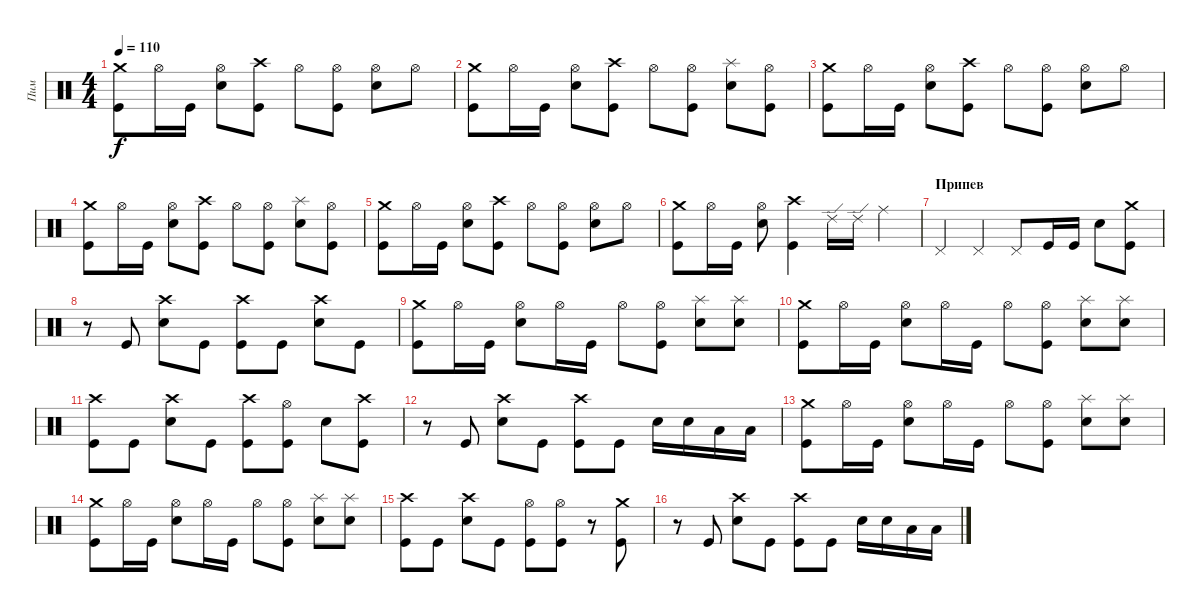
\track ("Пим" "Пим") {instrument percussion}
\staff {score}
\articulation defaults
\ts (4 4)
\tempo 110
\clef neutral
\ks c
("Crash medium (hit)" "Kick (hit)").8{dy f} "Hi-Hat (open)".16 "Kick (hit)".16 ("Hi-Hat (open)" "Snare (hit) 2").8 ("Crash high (hit)" "Kick (hit)").8 "Hi-Hat (open)".8 ("Hi-Hat (open)" "Kick (hit)").8 ("Hi-Hat (open)" "Snare (hit) 2").8 "Hi-Hat (open)".8 |
("Crash medium (hit)" "Kick (hit)").8 "Hi-Hat (open)".16 "Kick (hit)".16 ("Hi-Hat (open)" "Snare (hit) 2").8 ("Crash high (hit)" "Kick (hit)").8 "Hi-Hat (open)".8 ("Hi-Hat (open)" "Kick (hit)").8 ("Splash (hit)" "Snare (hit) 2").8 ("Hi-Hat (open)" "Kick (hit)").8 |
("Crash medium (hit)" "Kick (hit)").8 "Hi-Hat (open)".16 "Kick (hit)".16 ("Hi-Hat (open)" "Snare (hit) 2").8 ("Crash high (hit)" "Kick (hit)").8 "Hi-Hat (open)".8 ("Hi-Hat (open)" "Kick (hit)").8 ("Hi-Hat (open)" "Snare (hit) 2").8 "Hi-Hat (open)".8 |
("Crash medium (hit)" "Kick (hit)").8 "Hi-Hat (open)".16 "Kick (hit)".16 ("Hi-Hat (open)" "Snare (hit) 2").8 ("Crash high (hit)" "Kick (hit)").8 "Hi-Hat (open)".8 ("Hi-Hat (open)" "Kick (hit)").8 ("Splash (hit)" "Snare (hit) 2").8 ("Hi-Hat (open)" "Kick (hit)").8 |
("Crash medium (hit)" "Kick (hit)").8 "Hi-Hat (open)".16 "Kick (hit)".16 ("Hi-Hat (open)" "Snare (hit) 2").8 ("Crash high (hit)" "Kick (hit)").8 "Hi-Hat (open)".8 ("Hi-Hat (open)" "Kick (hit)").8 ("Hi-Hat (open)" "Snare (hit) 2").8 "Hi-Hat (open)".8 |
("Crash medium (hit)" "Kick (hit)").8 "Hi-Hat (open)".16 "Kick (hit)".16 ("Hi-Hat (open)" "Snare (hit) 2").8 ("Crash high (hit)" "Kick (hit)").4 "Ride (edge) 2".16 "Ride (edge) 2".16 "Ride (middle)".4 |
\section ("" "Припев")
"Pedal Hi-Hat (hit)".4 "Pedal Hi-Hat (hit)".4 "Pedal Hi-Hat (hit)".8 "Kick (hit)".16 "Kick (hit)".16 "Snare (hit) 2".8 ("Crash medium (hit)" "Kick (hit)").8 |
r.8 "Kick (hit)".8 ("Crash high (hit)" "Snare (hit) 2").8 "Kick (hit)".8 ("Crash high (hit)" "Kick (hit)").8 "Kick (hit)".8 ("Crash high (hit)" "Snare (hit) 2").8 "Kick (hit)".8 |
("Crash medium (hit)" "Kick (hit)").8 "Hi-Hat (open)".16 "Kick (hit)".16 ("Hi-Hat (open)" "Snare (hit) 2").8 "Hi-Hat (open)".16 "Kick (hit)".16 "Hi-Hat (open)".8 ("Hi-Hat (open)" "Kick (hit)").8 ("Splash (hit)" "Snare (hit) 2").8 ("Splash (hit)" "Snare (hit) 2").8 |
("Crash medium (hit)" "Kick (hit)").8 "Hi-Hat (open)".16 "Kick (hit)".16 ("Hi-Hat (open)" "Snare (hit) 2").8 "Hi-Hat (open)".16 "Kick (hit)".16 "Hi-Hat (open)".8 ("Hi-Hat (open)" "Kick (hit)").8 ("Splash (hit)" "Snare (hit) 2").8 ("Splash (hit)" "Snare (hit) 2").8 |
("Crash high (hit)" "Kick (hit)").8 "Kick (hit)".8 ("Crash high (hit)" "Snare (hit) 2").8 "Kick (hit)".8 ("Crash high (hit)" "Kick (hit)").8 ("Hi-Hat (open)" "Kick (hit)").8 "Snare (hit) 2".8 ("Crash high (hit)" "Kick (hit)").8 |
r.8 "Kick (hit)".8 ("Crash high (hit)" "Snare (hit) 2").8 "Kick (hit)".8 ("Crash high (hit)" "Kick (hit)").8 "Kick (hit)".8 "Snare (hit) 2".16 "Snare (hit) 2".16 "Low Tom (hit)".16 "Low Tom (hit)".16 |
("Crash medium (hit)" "Kick (hit)").8 "Hi-Hat (open)".16 "Kick (hit)".16 ("Hi-Hat (open)" "Snare (hit) 2").8 "Hi-Hat (open)".16 "Kick (hit)".16 "Hi-Hat (open)".8 ("Hi-Hat (open)" "Kick (hit)").8 ("Splash (hit)" "Snare (hit) 2").8 ("Splash (hit)" "Snare (hit) 2").8 |
("Crash medium (hit)" "Kick (hit)").8 "Hi-Hat (open)".16 "Kick (hit)".16 ("Hi-Hat (open)" "Snare (hit) 2").8 "Hi-Hat (open)".16 "Kick (hit)".16 "Hi-Hat (open)".8 ("Hi-Hat (open)" "Kick (hit)").8 ("Splash (hit)" "Snare (hit) 2").8 ("Splash (hit)" "Snare (hit) 2").8 |
("Crash high (hit)" "Kick (hit)").8 "Kick (hit)".8 ("Crash high (hit)" "Snare (hit) 2").8 "Kick (hit)".8 ("Hi-Hat (open)" "Kick (hit)").8 ("Hi-Hat (open)" "Kick (hit)").8 r.8 ("Crash medium (hit)" "Kick (hit)").8 |
r.8 "Kick (hit)".8 ("Crash high (hit)" "Snare (hit) 2").8 "Kick (hit)".8 ("Crash high (hit)" "Kick (hit)").8 "Kick (hit)".8 "Snare (hit) 2".16 "Snare (hit) 2".16 "Low Tom (hit)".16 "Low Tom (hit)".16
